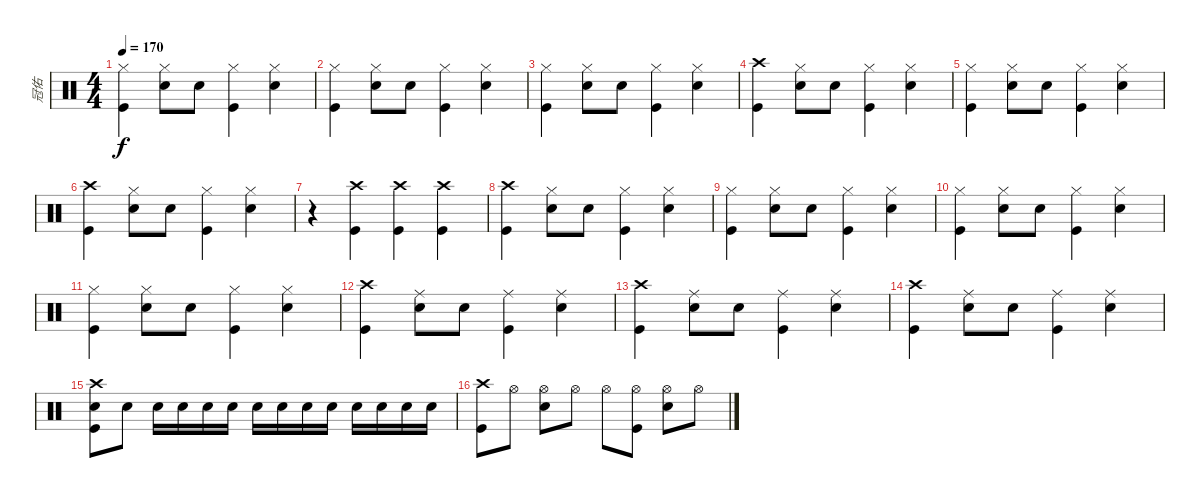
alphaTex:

\track ("冠佑" "冠佑") {instrument percussion}
\staff {score}
\articulation defaults
\ts (4 4)
\tempo 170
\clef neutral
\ks c
("Hi-Hat (closed)" "Kick (hit)").4{dy f} ("Hi-Hat (closed)" "Snare (hit) 2").8 "Snare (hit) 2".8 ("Hi-Hat (closed)" "Kick (hit)").4 ("Hi-Hat (closed)" "Snare (hit) 2").4 |
("Hi-Hat (closed)" "Kick (hit)").4 ("Hi-Hat (closed)" "Snare (hit) 2").8 "Snare (hit) 2".8 ("Hi-Hat (closed)" "Kick (hit)").4 ("Hi-Hat (closed)" "Snare (hit) 2").4 |
("Hi-Hat (closed)" "Kick (hit)").4 ("Hi-Hat (closed)" "Snare (hit) 2").8 "Snare (hit) 2".8 ("Hi-Hat (closed)" "Kick (hit)").4 ("Hi-Hat (closed)" "Snare (hit) 2").4 |
("Crash high (hit)" "Kick (hit)").4 ("Hi-Hat (closed)" "Snare (hit) 2").8 "Snare (hit) 2".8 ("Hi-Hat (closed)" "Kick (hit)").4 ("Hi-Hat (closed)" "Snare (hit) 2").4 |
("Hi-Hat (closed)" "Kick (hit)").4 ("Hi-Hat (closed)" "Snare (hit) 2").8 "Snare (hit) 2".8 ("Hi-Hat (closed)" "Kick (hit)").4 ("Hi-Hat (closed)" "Snare (hit) 2").4 |
("Crash high (hit)" "Kick (hit)").4 ("Hi-Hat (closed)" "Snare (hit) 2").8 "Snare (hit) 2".8 ("Hi-Hat (closed)" "Kick (hit)").4 ("Hi-Hat (closed)" "Snare (hit) 2").4 |
r.4 ("Crash high (hit)" "Kick (hit)").4 ("Crash high (hit)" "Kick (hit)").4 ("Crash high (hit)" "Kick (hit)").4 |
("Crash high (hit)" "Kick (hit)").4 ("Hi-Hat (closed)" "Snare (hit) 2").8 "Snare (hit) 2".8 ("Hi-Hat (closed)" "Kick (hit)").4 ("Hi-Hat (closed)" "Snare (hit) 2").4 |
("Hi-Hat (closed)" "Kick (hit)").4 ("Hi-Hat (closed)" "Snare (hit) 2").8 "Snare (hit) 2".8 ("Hi-Hat (closed)" "Kick (hit)").4 ("Hi-Hat (closed)" "Snare (hit) 2").4 |
("Hi-Hat (closed)" "Kick (hit)").4 ("Hi-Hat (closed)" "Snare (hit) 2").8 "Snare (hit) 2".8 ("Hi-Hat (closed)" "Kick (hit)").4 ("Hi-Hat (closed)" "Snare (hit) 2").4 |
("Hi-Hat (closed)" "Kick (hit)").4 ("Hi-Hat (closed)" "Snare (hit) 2").8 "Snare (hit) 2".8 ("Hi-Hat (closed)" "Kick (hit)").4 ("Hi-Hat (closed)" "Snare (hit) 2").4 |
("Crash high (hit)" "Kick (hit)").4 ("Ride (middle)" "Snare (hit) 2").8 "Snare (hit) 2".8 ("Ride (middle)" "Kick (hit)").4 ("Ride (middle)" "Snare (hit) 2").4 |
("Crash high (hit)" "Kick (hit)").4 ("Ride (middle)" "Snare (hit) 2").8 "Snare (hit) 2".8 ("Ride (middle)" "Kick (hit)").4 ("Ride (middle)" "Snare (hit) 2").4 |
("Crash high (hit)" "Kick (hit)").4 ("Ride (middle)" "Snare (hit) 2").8 "Snare (hit) 2".8 ("Ride (middle)" "Kick (hit)").4 ("Ride (middle)" "Snare (hit) 2").4 |
("Crash high (hit)" "Snare (hit) 2" "Kick (hit)").8 "Snare (hit) 2".8 "Snare (hit) 2".16 "Snare (hit) 2".16 "Snare (hit) 2".16 "Snare (hit) 2".16 "Snare (hit) 2".16 "Snare (hit) 2".16 "Snare (hit) 2".16 "Snare (hit) 2".16 "Snare (hit) 2".16 "Snare (hit) 2".16 "Snare (hit) 2".16 "Snare (hit) 2".16 |
("Crash high (hit)" "Kick (hit)").8 "Hi-Hat (open)".8 ("Hi-Hat (open)" "Snare (hit) 2").8 "Hi-Hat (open)".8 "Hi-Hat (open)".8 ("Hi-Hat (open)" "Kick (hit)").8 ("Hi-Hat (open)" "Snare (hit) 2").8 "Hi-Hat (open)".8
